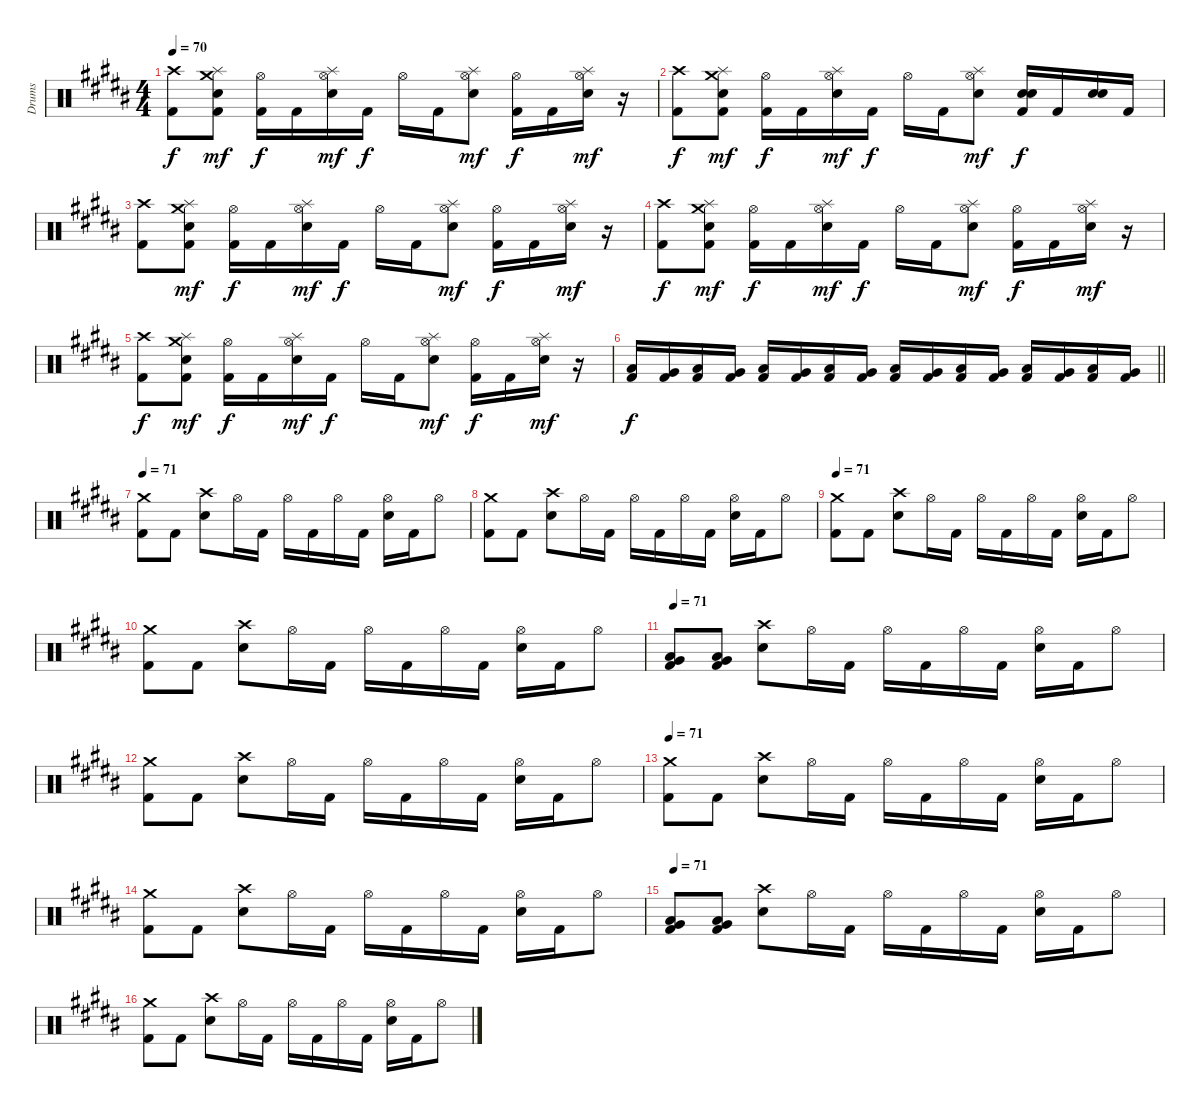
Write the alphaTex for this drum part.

\track ("Drums" "Drums") {instrument percussion}
\staff {score}
\articulation defaults
\ts (4 4)
\tempo 70
\clef neutral
\ks b
("Crash high (hit)" "Kick (hit) 2").8{dy f} ("Crash medium (hit)" "Splash (hit)" "Snare (hit) 2" "Kick (hit) 2").8{dy mf} ("Hi-Hat (open)" "Kick (hit) 2").16{dy f} "Kick (hit) 2".16 ("Hi-Hat (open)" "Splash (hit)" "Snare (hit) 2").16{dy mf} "Kick (hit) 2".16{dy f} "Hi-Hat (open)".16 "Kick (hit) 2".16 ("Hi-Hat (open)" "Splash (hit)" "Snare (hit) 2").8{dy mf} ("Hi-Hat (open)" "Kick (hit) 2").16{dy f} "Kick (hit) 2".16 ("Hi-Hat (open)" "Splash (hit)" "Snare (hit) 2").16{dy mf} r.16 |
("Crash high (hit)" "Kick (hit) 2").8{dy f} ("Crash medium (hit)" "Splash (hit)" "Snare (hit) 2" "Kick (hit) 2").8{dy mf} ("Hi-Hat (open)" "Kick (hit) 2").16{dy f} "Kick (hit) 2".16 ("Hi-Hat (open)" "Splash (hit)" "Snare (hit) 2").16{dy mf} "Kick (hit) 2".16{dy f} "Hi-Hat (open)".16 "Kick (hit) 2".16 ("Hi-Hat (open)" "Splash (hit)" "Snare (hit) 2").8{dy mf} ("Electric Snare (hit)" "Snare (hit) 2" "Kick (hit) 2").16{dy f} "Kick (hit) 2".16 ("Electric Snare (hit)" "Snare (hit) 2").16 "Kick (hit) 2".16 |
("Crash high (hit)" "Kick (hit) 2").8 ("Crash medium (hit)" "Splash (hit)" "Snare (hit) 2" "Kick (hit) 2").8{dy mf} ("Hi-Hat (open)" "Kick (hit) 2").16{dy f} "Kick (hit) 2".16 ("Hi-Hat (open)" "Splash (hit)" "Snare (hit) 2").16{dy mf} "Kick (hit) 2".16{dy f} "Hi-Hat (open)".16 "Kick (hit) 2".16 ("Hi-Hat (open)" "Splash (hit)" "Snare (hit) 2").8{dy mf} ("Hi-Hat (open)" "Kick (hit) 2").16{dy f} "Kick (hit) 2".16 ("Hi-Hat (open)" "Splash (hit)" "Snare (hit) 2").16{dy mf} r.16 |
("Crash high (hit)" "Kick (hit) 2").8{dy f} ("Crash medium (hit)" "Splash (hit)" "Snare (hit) 2" "Kick (hit) 2").8{dy mf} ("Hi-Hat (open)" "Kick (hit) 2").16{dy f} "Kick (hit) 2".16 ("Hi-Hat (open)" "Splash (hit)" "Snare (hit) 2").16{dy mf} "Kick (hit) 2".16{dy f} "Hi-Hat (open)".16 "Kick (hit) 2".16 ("Hi-Hat (open)" "Splash (hit)" "Snare (hit) 2").8{dy mf} ("Hi-Hat (open)" "Kick (hit) 2").16{dy f} "Kick (hit) 2".16 ("Hi-Hat (open)" "Splash (hit)" "Snare (hit) 2").16{dy mf} r.16 |
("Crash high (hit)" "Kick (hit) 2").8{dy f} ("Crash medium (hit)" "Splash (hit)" "Snare (hit) 2" "Kick (hit) 2").8{dy mf} ("Hi-Hat (open)" "Kick (hit) 2").16{dy f} "Kick (hit) 2".16 ("Hi-Hat (open)" "Splash (hit)" "Snare (hit) 2").16{dy mf} "Kick (hit) 2".16{dy f} "Hi-Hat (open)".16 "Kick (hit) 2".16 ("Hi-Hat (open)" "Splash (hit)" "Snare (hit) 2").8{dy mf} ("Hi-Hat (open)" "Kick (hit) 2").16{dy f} "Kick (hit) 2".16 ("Hi-Hat (open)" "Splash (hit)" "Snare (hit) 2").16{dy mf} r.16 |
\barLineRight lightlight
("Low Tom (hit)" "Kick (hit) 2").16{dy f} ("Very Low Tom (hit)" "Kick (hit) 2").16 ("Low Tom (hit)" "Kick (hit) 2").16 ("Very Low Tom (hit)" "Kick (hit) 2").16 ("Low Tom (hit)" "Kick (hit) 2").16 ("Very Low Tom (hit)" "Kick (hit) 2").16 ("Low Tom (hit)" "Kick (hit) 2").16 ("Very Low Tom (hit)" "Kick (hit) 2").16 ("Low Tom (hit)" "Kick (hit) 2").16 ("Very Low Tom (hit)" "Kick (hit) 2").16 ("Low Tom (hit)" "Kick (hit) 2").16 ("Very Low Tom (hit)" "Kick (hit) 2").16 ("Low Tom (hit)" "Kick (hit) 2").16 ("Very Low Tom (hit)" "Kick (hit) 2").16 ("Low Tom (hit)" "Kick (hit) 2").16 ("Very Low Tom (hit)" "Kick (hit) 2").16 |
\tempo 71
("Crash medium (hit)" "Kick (hit) 2").8 "Kick (hit) 2".8 ("Crash high (hit)" "Electric Snare (hit)").8 "Hi-Hat (open)".16 "Kick (hit) 2".16 "Hi-Hat (open)".16 "Kick (hit) 2".16 "Hi-Hat (open)".16 "Kick (hit) 2".16 ("Hi-Hat (open)" "Electric Snare (hit)").16 "Kick (hit) 2".16 "Hi-Hat (open)".8 |
("Crash medium (hit)" "Kick (hit) 2").8 "Kick (hit) 2".8 ("Crash high (hit)" "Electric Snare (hit)").8 "Hi-Hat (open)".16 "Kick (hit) 2".16 "Hi-Hat (open)".16 "Kick (hit) 2".16 "Hi-Hat (open)".16 "Kick (hit) 2".16 ("Hi-Hat (open)" "Electric Snare (hit)").16 "Kick (hit) 2".16 "Hi-Hat (open)".8 |
\tempo 71
("Crash medium (hit)" "Kick (hit) 2").8 "Kick (hit) 2".8 ("Crash high (hit)" "Electric Snare (hit)").8 "Hi-Hat (open)".16 "Kick (hit) 2".16 "Hi-Hat (open)".16 "Kick (hit) 2".16 "Hi-Hat (open)".16 "Kick (hit) 2".16 ("Hi-Hat (open)" "Electric Snare (hit)").16 "Kick (hit) 2".16 "Hi-Hat (open)".8 |
("Crash medium (hit)" "Kick (hit) 2").8 "Kick (hit) 2".8 ("Crash high (hit)" "Electric Snare (hit)").8 "Hi-Hat (open)".16 "Kick (hit) 2".16 "Hi-Hat (open)".16 "Kick (hit) 2".16 "Hi-Hat (open)".16 "Kick (hit) 2".16 ("Hi-Hat (open)" "Electric Snare (hit)").16 "Kick (hit) 2".16 "Hi-Hat (open)".8 |
\tempo 71
("Low Tom (hit)" "Very Low Tom (hit)" "Kick (hit) 2").8 ("Very Low Tom (hit)" "Low Floor Tom (hit)" "Kick (hit) 2").8 ("Crash high (hit)" "Electric Snare (hit)").8 "Hi-Hat (open)".16 "Kick (hit) 2".16 "Hi-Hat (open)".16 "Kick (hit) 2".16 "Hi-Hat (open)".16 "Kick (hit) 2".16 ("Hi-Hat (open)" "Electric Snare (hit)").16 "Kick (hit) 2".16 "Hi-Hat (open)".8 |
("Crash medium (hit)" "Kick (hit) 2").8 "Kick (hit) 2".8 ("Crash high (hit)" "Electric Snare (hit)").8 "Hi-Hat (open)".16 "Kick (hit) 2".16 "Hi-Hat (open)".16 "Kick (hit) 2".16 "Hi-Hat (open)".16 "Kick (hit) 2".16 ("Hi-Hat (open)" "Electric Snare (hit)").16 "Kick (hit) 2".16 "Hi-Hat (open)".8 |
\tempo 71
("Crash medium (hit)" "Kick (hit) 2").8 "Kick (hit) 2".8 ("Crash high (hit)" "Electric Snare (hit)").8 "Hi-Hat (open)".16 "Kick (hit) 2".16 "Hi-Hat (open)".16 "Kick (hit) 2".16 "Hi-Hat (open)".16 "Kick (hit) 2".16 ("Hi-Hat (open)" "Electric Snare (hit)").16 "Kick (hit) 2".16 "Hi-Hat (open)".8 |
("Crash medium (hit)" "Kick (hit) 2").8 "Kick (hit) 2".8 ("Crash high (hit)" "Electric Snare (hit)").8 "Hi-Hat (open)".16 "Kick (hit) 2".16 "Hi-Hat (open)".16 "Kick (hit) 2".16 "Hi-Hat (open)".16 "Kick (hit) 2".16 ("Hi-Hat (open)" "Electric Snare (hit)").16 "Kick (hit) 2".16 "Hi-Hat (open)".8 |
\tempo 71
("Low Tom (hit)" "Very Low Tom (hit)" "Kick (hit) 2").8 ("Very Low Tom (hit)" "Low Floor Tom (hit)" "Kick (hit) 2").8 ("Crash high (hit)" "Electric Snare (hit)").8 "Hi-Hat (open)".16 "Kick (hit) 2".16 "Hi-Hat (open)".16 "Kick (hit) 2".16 "Hi-Hat (open)".16 "Kick (hit) 2".16 ("Hi-Hat (open)" "Electric Snare (hit)").16 "Kick (hit) 2".16 "Hi-Hat (open)".8 |
("Crash medium (hit)" "Kick (hit) 2").8 "Kick (hit) 2".8 ("Crash high (hit)" "Electric Snare (hit)").8 "Hi-Hat (open)".16 "Kick (hit) 2".16 "Hi-Hat (open)".16 "Kick (hit) 2".16 "Hi-Hat (open)".16 "Kick (hit) 2".16 ("Hi-Hat (open)" "Electric Snare (hit)").16 "Kick (hit) 2".16 "Hi-Hat (open)".8
